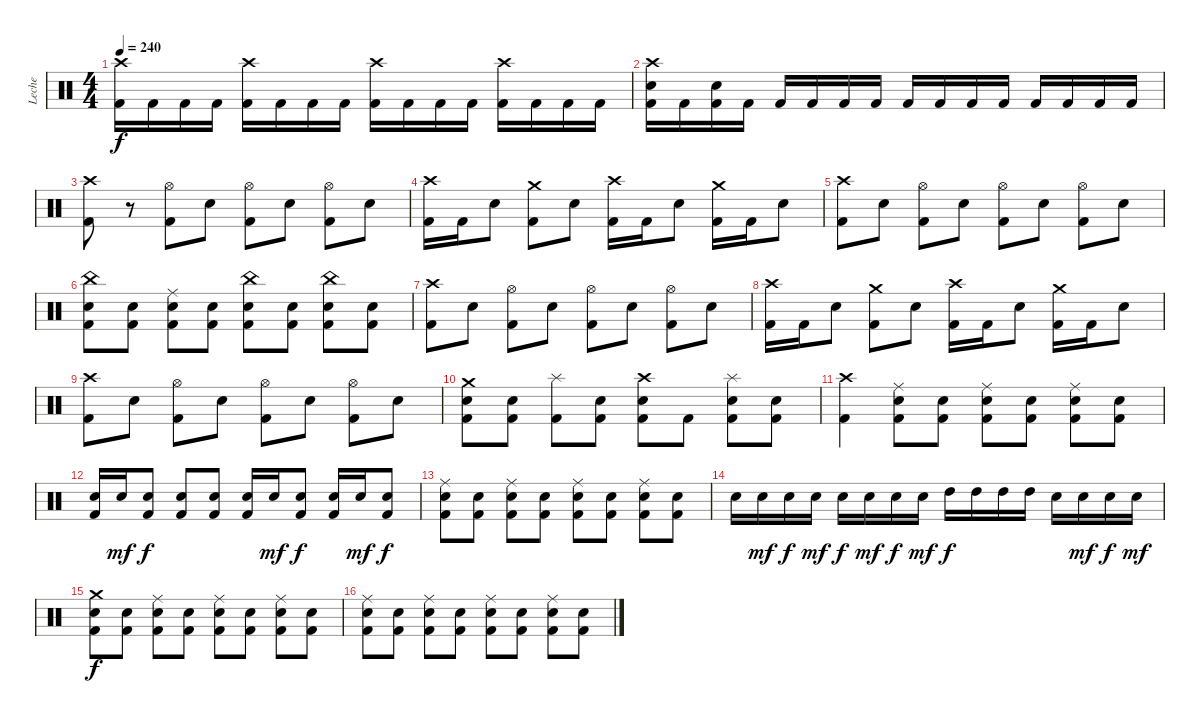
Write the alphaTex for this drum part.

\track ("Leche" "Leche") {instrument percussion}
\staff {score}
\articulation defaults
\ts (4 4)
\tempo 240
\clef neutral
\ks c
("Crash high (hit)" "Kick (hit) 2").16{dy f} "Kick (hit) 2".16 "Kick (hit) 2".16 "Kick (hit) 2".16 ("Crash high (hit)" "Kick (hit) 2").16 "Kick (hit) 2".16 "Kick (hit) 2".16 "Kick (hit) 2".16 ("Crash high (hit)" "Kick (hit) 2").16 "Kick (hit) 2".16 "Kick (hit) 2".16 "Kick (hit) 2".16 ("Crash high (hit)" "Kick (hit) 2").16 "Kick (hit) 2".16 "Kick (hit) 2".16 "Kick (hit) 2".16 |
("Crash high (hit)" "Electric Snare (hit)" "Kick (hit) 2").16 "Kick (hit) 2".16 ("Electric Snare (hit)" "Kick (hit) 2").16 "Kick (hit) 2".16 "Kick (hit) 2".16 "Kick (hit) 2".16 "Kick (hit) 2".16 "Kick (hit) 2".16 "Kick (hit) 2".16 "Kick (hit) 2".16 "Kick (hit) 2".16 "Kick (hit) 2".16 "Kick (hit) 2".16 "Kick (hit) 2".16 "Kick (hit) 2".16 "Kick (hit) 2".16 |
("Crash high (hit)" "Kick (hit) 2").8 r.8 ("Hi-Hat (open)" "Kick (hit) 2").8 "Electric Snare (hit)".8 ("Hi-Hat (open)" "Kick (hit) 2").8 "Electric Snare (hit)".8 ("Hi-Hat (open)" "Kick (hit) 2").8 "Electric Snare (hit)".8 |
("Crash high (hit)" "Kick (hit) 2").16 "Kick (hit) 2".16 "Electric Snare (hit)".8 ("Crash medium (hit)" "Kick (hit) 2").8 "Electric Snare (hit)".8 ("Crash high (hit)" "Kick (hit) 2").16 "Kick (hit) 2".16 "Electric Snare (hit)".8 ("Crash medium (hit)" "Kick (hit) 2").16 "Kick (hit) 2".16 "Electric Snare (hit)".8 |
("Crash high (hit)" "Kick (hit) 2").8 "Electric Snare (hit)".8 ("Hi-Hat (open)" "Kick (hit) 2").8 "Electric Snare (hit)".8 ("Hi-Hat (open)" "Kick (hit) 2").8 "Electric Snare (hit)".8 ("Hi-Hat (open)" "Kick (hit) 2").8 "Electric Snare (hit)".8 |
("China (hit)" "Electric Snare (hit)" "Kick (hit) 2").8 ("Electric Snare (hit)" "Kick (hit) 2").8 ("Ride (middle)" "Electric Snare (hit)" "Kick (hit) 2").8 ("Electric Snare (hit)" "Kick (hit) 2").8 ("China (hit)" "Electric Snare (hit)" "Kick (hit) 2").8 ("Electric Snare (hit)" "Kick (hit) 2").8 ("China (hit)" "Electric Snare (hit)" "Kick (hit) 2").8 ("Electric Snare (hit)" "Kick (hit) 2").8 |
("Crash high (hit)" "Kick (hit) 2").8 "Electric Snare (hit)".8 ("Hi-Hat (open)" "Kick (hit) 2").8 "Electric Snare (hit)".8 ("Hi-Hat (open)" "Kick (hit) 2").8 "Electric Snare (hit)".8 ("Hi-Hat (open)" "Kick (hit) 2").8 "Electric Snare (hit)".8 |
("Crash high (hit)" "Kick (hit) 2").16 "Kick (hit) 2".16 "Electric Snare (hit)".8 ("Crash medium (hit)" "Kick (hit) 2").8 "Electric Snare (hit)".8 ("Crash high (hit)" "Kick (hit) 2").16 "Kick (hit) 2".16 "Electric Snare (hit)".8 ("Crash medium (hit)" "Kick (hit) 2").16 "Kick (hit) 2".16 "Electric Snare (hit)".8 |
("Crash high (hit)" "Kick (hit) 2").8 "Electric Snare (hit)".8 ("Hi-Hat (open)" "Kick (hit) 2").8 "Electric Snare (hit)".8 ("Hi-Hat (open)" "Kick (hit) 2").8 "Electric Snare (hit)".8 ("Hi-Hat (open)" "Kick (hit) 2").8 "Electric Snare (hit)".8 |
("Crash medium (hit)" "Electric Snare (hit)" "Kick (hit) 2").8 ("Electric Snare (hit)" "Kick (hit) 2").8 ("Splash (hit)" "Kick (hit) 2").8 ("Electric Snare (hit)" "Kick (hit) 2").8 ("Crash high (hit)" "Electric Snare (hit)" "Kick (hit) 2").8 "Kick (hit) 2".8 ("Splash (hit)" "Electric Snare (hit)" "Kick (hit) 2").8 ("Electric Snare (hit)" "Kick (hit) 2").8 |
("Crash high (hit)" "Kick (hit) 2").4 ("Ride (middle)" "Electric Snare (hit)" "Kick (hit) 2").8 ("Electric Snare (hit)" "Kick (hit) 2").8 ("Ride (middle)" "Electric Snare (hit)" "Kick (hit) 2").8 ("Electric Snare (hit)" "Kick (hit) 2").8 ("Ride (middle)" "Electric Snare (hit)" "Kick (hit) 2").8 ("Electric Snare (hit)" "Kick (hit) 2").8 |
("Electric Snare (hit)" "Kick (hit) 2").16 "Electric Snare (hit)".16{dy mf} ("Electric Snare (hit)" "Kick (hit) 2").8{dy f} ("Electric Snare (hit)" "Kick (hit) 2").8 ("Electric Snare (hit)" "Kick (hit) 2").8 ("Electric Snare (hit)" "Kick (hit) 2").16 "Electric Snare (hit)".16{dy mf} ("Electric Snare (hit)" "Kick (hit) 2").8{dy f} ("Electric Snare (hit)" "Kick (hit) 2").16 "Electric Snare (hit)".16{dy mf} ("Electric Snare (hit)" "Kick (hit) 2").8{dy f} |
("Ride (middle)" "Electric Snare (hit)" "Kick (hit) 2").8 ("Electric Snare (hit)" "Kick (hit) 2").8 ("Ride (middle)" "Electric Snare (hit)" "Kick (hit) 2").8 ("Electric Snare (hit)" "Kick (hit) 2").8 ("Ride (middle)" "Electric Snare (hit)" "Kick (hit) 2").8 ("Electric Snare (hit)" "Kick (hit) 2").8 ("Ride (middle)" "Electric Snare (hit)" "Kick (hit) 2").8 ("Electric Snare (hit)" "Kick (hit) 2").8 |
"Electric Snare (hit)".16 "Electric Snare (hit)".16{dy mf} "Electric Snare (hit)".16{dy f} "Electric Snare (hit)".16{dy mf} "Electric Snare (hit)".16{dy f} "Electric Snare (hit)".16{dy mf} "Electric Snare (hit)".16{dy f} "Electric Snare (hit)".16{dy mf} "High Tom (hit)".16{dy f} "High Tom (hit)".16 "High Tom (hit)".16 "High Tom (hit)".16 "Electric Snare (hit)".16 "Electric Snare (hit)".16{dy mf} "Electric Snare (hit)".16{dy f} "Electric Snare (hit)".16{dy mf} |
("Crash medium (hit)" "Electric Snare (hit)" "Kick (hit) 2").8{dy f} ("Electric Snare (hit)" "Kick (hit) 2").8 ("Ride (middle)" "Electric Snare (hit)" "Kick (hit) 2").8 ("Electric Snare (hit)" "Kick (hit) 2").8 ("Ride (middle)" "Electric Snare (hit)" "Kick (hit) 2").8 ("Electric Snare (hit)" "Kick (hit) 2").8 ("Ride (middle)" "Electric Snare (hit)" "Kick (hit) 2").8 ("Electric Snare (hit)" "Kick (hit) 2").8 |
("Ride (middle)" "Electric Snare (hit)" "Kick (hit) 2").8 ("Electric Snare (hit)" "Kick (hit) 2").8 ("Ride (middle)" "Electric Snare (hit)" "Kick (hit) 2").8 ("Electric Snare (hit)" "Kick (hit) 2").8 ("Ride (middle)" "Electric Snare (hit)" "Kick (hit) 2").8 ("Electric Snare (hit)" "Kick (hit) 2").8 ("Ride (middle)" "Electric Snare (hit)" "Kick (hit) 2").8 ("Electric Snare (hit)" "Kick (hit) 2").8
